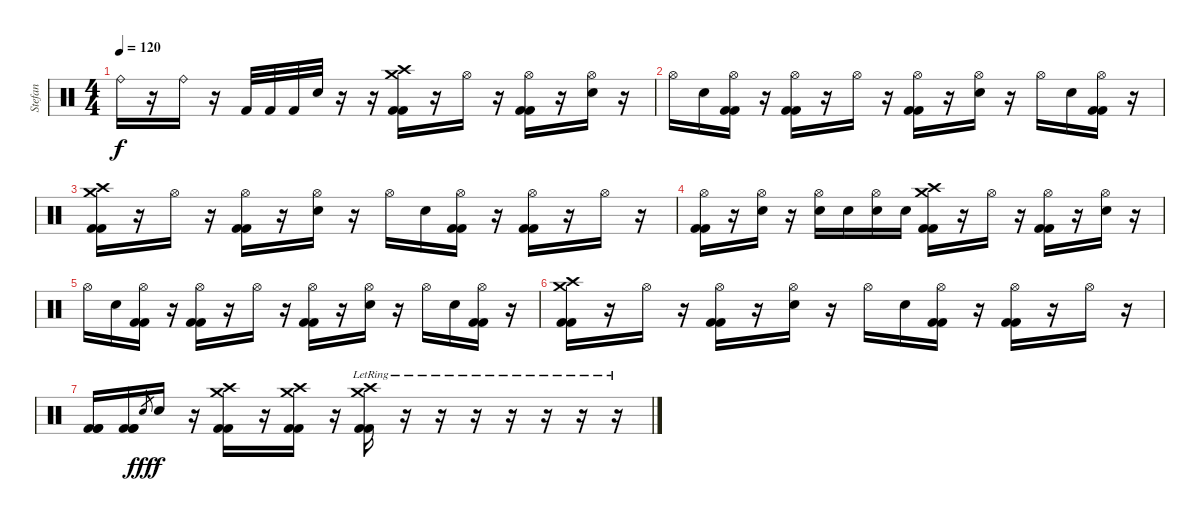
\track ("Stefan" "Stefan") {instrument percussion}
\staff {score}
\articulation defaults
\ts (4 4)
\tempo 120
\clef neutral
\ks c "Ride (bell)".16{dy f}
r.16 "Ride (bell)".16 r.16 "Kick (hit) 2".32 "Kick (hit) 2".32 "Kick (hit) 2".32 "Electric Snare (hit)".32 r.16 r.16 ("Crash high (hit)" "Kick (hit) 2" "Kick (hit) 2" "Crash medium (hit)").16 r.16 "Hi-Hat (open)".16 r.16 ("Kick (hit) 2" "Kick (hit) 2" "Hi-Hat (open)").16 r.16 ("Electric Snare (hit)" "Hi-Hat (open)").16 r.16 |
"Hi-Hat (open)".16 "Electric Snare (hit)".16 ("Kick (hit) 2" "Kick (hit) 2" "Hi-Hat (open)").16 r.16 ("Kick (hit) 2" "Kick (hit) 2" "Hi-Hat (open)").16 r.16 "Hi-Hat (open)".16 r.16 ("Kick (hit) 2" "Kick (hit) 2" "Hi-Hat (open)").16 r.16 ("Electric Snare (hit)" "Hi-Hat (open)").16 r.16 "Hi-Hat (open)".16 "Electric Snare (hit)".16 ("Kick (hit) 2" "Kick (hit) 2" "Hi-Hat (open)").16 r.16 |
("Crash high (hit)" "Kick (hit) 2" "Kick (hit) 2" "Crash medium (hit)").16 r.16 "Hi-Hat (open)".16 r.16 ("Kick (hit) 2" "Kick (hit) 2" "Hi-Hat (open)").16 r.16 ("Electric Snare (hit)" "Hi-Hat (open)").16 r.16 "Hi-Hat (open)".16 "Electric Snare (hit)".16 ("Kick (hit) 2" "Kick (hit) 2" "Hi-Hat (open)").16 r.16 ("Kick (hit) 2" "Kick (hit) 2" "Hi-Hat (open)").16 r.16 "Hi-Hat (open)".16 r.16 |
("Kick (hit) 2" "Kick (hit) 2" "Hi-Hat (open)").16 r.16 ("Electric Snare (hit)" "Hi-Hat (open)").16 r.16 ("Electric Snare (hit)" "Hi-Hat (open)").16 "Electric Snare (hit)".16 ("Electric Snare (hit)" "Hi-Hat (open)").16 "Electric Snare (hit)".16 ("Crash high (hit)" "Crash medium (hit)" "Kick (hit) 2" "Kick (hit) 2").16 r.16 "Hi-Hat (open)".16 r.16 ("Kick (hit) 2" "Kick (hit) 2" "Hi-Hat (open)").16 r.16 ("Electric Snare (hit)" "Hi-Hat (open)").16 r.16 |
"Hi-Hat (open)".16 "Electric Snare (hit)".16 ("Kick (hit) 2" "Kick (hit) 2" "Hi-Hat (open)").16 r.16 ("Kick (hit) 2" "Kick (hit) 2" "Hi-Hat (open)").16 r.16 "Hi-Hat (open)".16 r.16 ("Kick (hit) 2" "Kick (hit) 2" "Hi-Hat (open)").16 r.16 ("Electric Snare (hit)" "Hi-Hat (open)").16 r.16 "Hi-Hat (open)".16 "Electric Snare (hit)".16 ("Kick (hit) 2" "Kick (hit) 2" "Hi-Hat (open)").16 r.16 |
("Crash high (hit)" "Kick (hit) 2" "Kick (hit) 2" "Crash medium (hit)").16 r.16 "Hi-Hat (open)".16 r.16 ("Kick (hit) 2" "Kick (hit) 2" "Hi-Hat (open)").16 r.16 ("Electric Snare (hit)" "Hi-Hat (open)").16 r.16 "Hi-Hat (open)".16 "Electric Snare (hit)".16 ("Kick (hit) 2" "Kick (hit) 2" "Hi-Hat (open)").16 r.16 ("Kick (hit) 2" "Kick (hit) 2" "Hi-Hat (open)").16 r.16 "Hi-Hat (open)".16 r.16 |
("Kick (hit) 2" "Kick (hit) 2" "Kick (hit) 2").16 ("Kick (hit) 2" "Kick (hit) 2" "Kick (hit) 2").16 "Electric Snare (hit)"{h}.8{gr dy fff} "Electric Snare (hit)".16{dy f} r.16 ("Crash high (hit)" "Crash medium (hit)" "Kick (hit) 2" "Kick (hit) 2").16 r.16 ("Crash high (hit)" "Crash medium (hit)" "Kick (hit) 2" "Kick (hit) 2").16 r.16 ("Crash high (hit)"{lr} "Crash medium (hit)"{lr} "Kick (hit) 2"{lr} "Kick (hit) 2"{lr}).16 r.16 r.16 r.16 r.16 r.16 r.16 r.16
